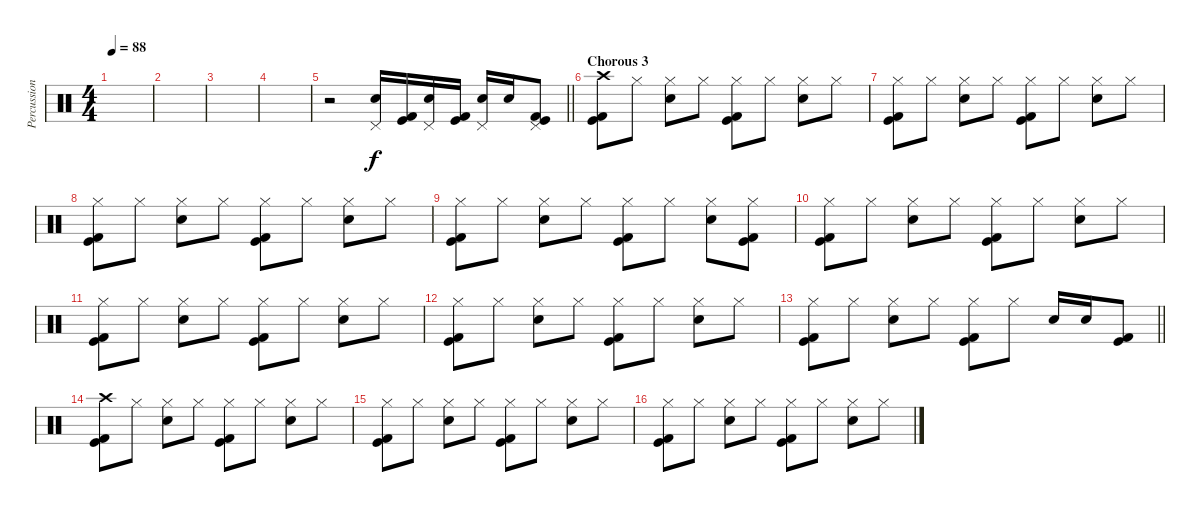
\track ("Percussion" "Percussion") {instrument percussion}
\staff {score}
\articulation defaults
\ts (4 4)
\tempo 88
\clef neutral
\ks c
|
|
|
|
\barLineRight lightlight
r.2 ("Pedal Hi-Hat (hit)" "Electric Snare (hit)").16{dy f} ("Kick (hit)" "Kick (hit) 2").16 ("Pedal Hi-Hat (hit)" "Electric Snare (hit)").16 ("Kick (hit)" "Kick (hit) 2").16 ("Pedal Hi-Hat (hit)" "Electric Snare (hit)").16 "Electric Snare (hit)".16 ("Pedal Hi-Hat (hit)" "Kick (hit)" "Kick (hit) 2").8 |
\section ("" "Chorous 3")
("Crash high (hit)" "Kick (hit)" "Kick (hit) 2").8 "Hi-Hat (closed)".8 ("Hi-Hat (closed)" "Electric Snare (hit)").8 "Hi-Hat (closed)".8 ("Hi-Hat (closed)" "Kick (hit)" "Kick (hit) 2").8 "Hi-Hat (closed)".8 ("Hi-Hat (closed)" "Electric Snare (hit)").8 "Hi-Hat (closed)".8 |
("Hi-Hat (closed)" "Kick (hit)" "Kick (hit) 2").8 "Hi-Hat (closed)".8 ("Hi-Hat (closed)" "Electric Snare (hit)").8 "Hi-Hat (closed)".8 ("Hi-Hat (closed)" "Kick (hit)" "Kick (hit) 2").8 "Hi-Hat (closed)".8 ("Hi-Hat (closed)" "Electric Snare (hit)").8 "Hi-Hat (closed)".8 |
("Hi-Hat (closed)" "Kick (hit)" "Kick (hit) 2").8 "Hi-Hat (closed)".8 ("Hi-Hat (closed)" "Electric Snare (hit)").8 "Hi-Hat (closed)".8 ("Hi-Hat (closed)" "Kick (hit)" "Kick (hit) 2").8 "Hi-Hat (closed)".8 ("Hi-Hat (closed)" "Electric Snare (hit)").8 "Hi-Hat (closed)".8 |
("Hi-Hat (closed)" "Kick (hit)" "Kick (hit) 2").8 "Hi-Hat (closed)".8 ("Hi-Hat (closed)" "Electric Snare (hit)").8 "Hi-Hat (closed)".8 ("Hi-Hat (closed)" "Kick (hit)" "Kick (hit) 2").8 "Hi-Hat (closed)".8 ("Hi-Hat (closed)" "Electric Snare (hit)").8 ("Hi-Hat (closed)" "Kick (hit)" "Kick (hit) 2").8 |
("Hi-Hat (closed)" "Kick (hit)" "Kick (hit) 2").8 "Hi-Hat (closed)".8 ("Hi-Hat (closed)" "Electric Snare (hit)").8 "Hi-Hat (closed)".8 ("Hi-Hat (closed)" "Kick (hit)" "Kick (hit) 2").8 "Hi-Hat (closed)".8 ("Hi-Hat (closed)" "Electric Snare (hit)").8 "Hi-Hat (closed)".8 |
("Hi-Hat (closed)" "Kick (hit)" "Kick (hit) 2").8 "Hi-Hat (closed)".8 ("Hi-Hat (closed)" "Electric Snare (hit)").8 "Hi-Hat (closed)".8 ("Hi-Hat (closed)" "Kick (hit)" "Kick (hit) 2").8 "Hi-Hat (closed)".8 ("Hi-Hat (closed)" "Electric Snare (hit)").8 "Hi-Hat (closed)".8 |
("Hi-Hat (closed)" "Kick (hit)" "Kick (hit) 2").8 "Hi-Hat (closed)".8 ("Hi-Hat (closed)" "Electric Snare (hit)").8 "Hi-Hat (closed)".8 ("Hi-Hat (closed)" "Kick (hit)" "Kick (hit) 2").8 "Hi-Hat (closed)".8 ("Hi-Hat (closed)" "Electric Snare (hit)").8 "Hi-Hat (closed)".8 |
\barLineRight lightlight
("Hi-Hat (closed)" "Kick (hit)" "Kick (hit) 2").8 "Hi-Hat (closed)".8 ("Hi-Hat (closed)" "Electric Snare (hit)").8 "Hi-Hat (closed)".8 ("Hi-Hat (closed)" "Kick (hit)" "Kick (hit) 2").8 "Hi-Hat (closed)".8 "Electric Snare (hit)".16 "Electric Snare (hit)".16 ("Kick (hit)" "Kick (hit) 2").8 |
\section ("" "")
("Crash high (hit)" "Kick (hit)" "Kick (hit) 2").8 "Hi-Hat (closed)".8 ("Hi-Hat (closed)" "Electric Snare (hit)").8 "Hi-Hat (closed)".8 ("Hi-Hat (closed)" "Kick (hit)" "Kick (hit) 2").8 "Hi-Hat (closed)".8 ("Hi-Hat (closed)" "Electric Snare (hit)").8 "Hi-Hat (closed)".8 |
("Hi-Hat (closed)" "Kick (hit)" "Kick (hit) 2").8 "Hi-Hat (closed)".8 ("Hi-Hat (closed)" "Electric Snare (hit)").8 "Hi-Hat (closed)".8 ("Hi-Hat (closed)" "Kick (hit)" "Kick (hit) 2").8 "Hi-Hat (closed)".8 ("Hi-Hat (closed)" "Electric Snare (hit)").8 "Hi-Hat (closed)".8 |
("Hi-Hat (closed)" "Kick (hit)" "Kick (hit) 2").8 "Hi-Hat (closed)".8 ("Hi-Hat (closed)" "Electric Snare (hit)").8 "Hi-Hat (closed)".8 ("Hi-Hat (closed)" "Kick (hit)" "Kick (hit) 2").8 "Hi-Hat (closed)".8 ("Hi-Hat (closed)" "Electric Snare (hit)").8 "Hi-Hat (closed)".8
